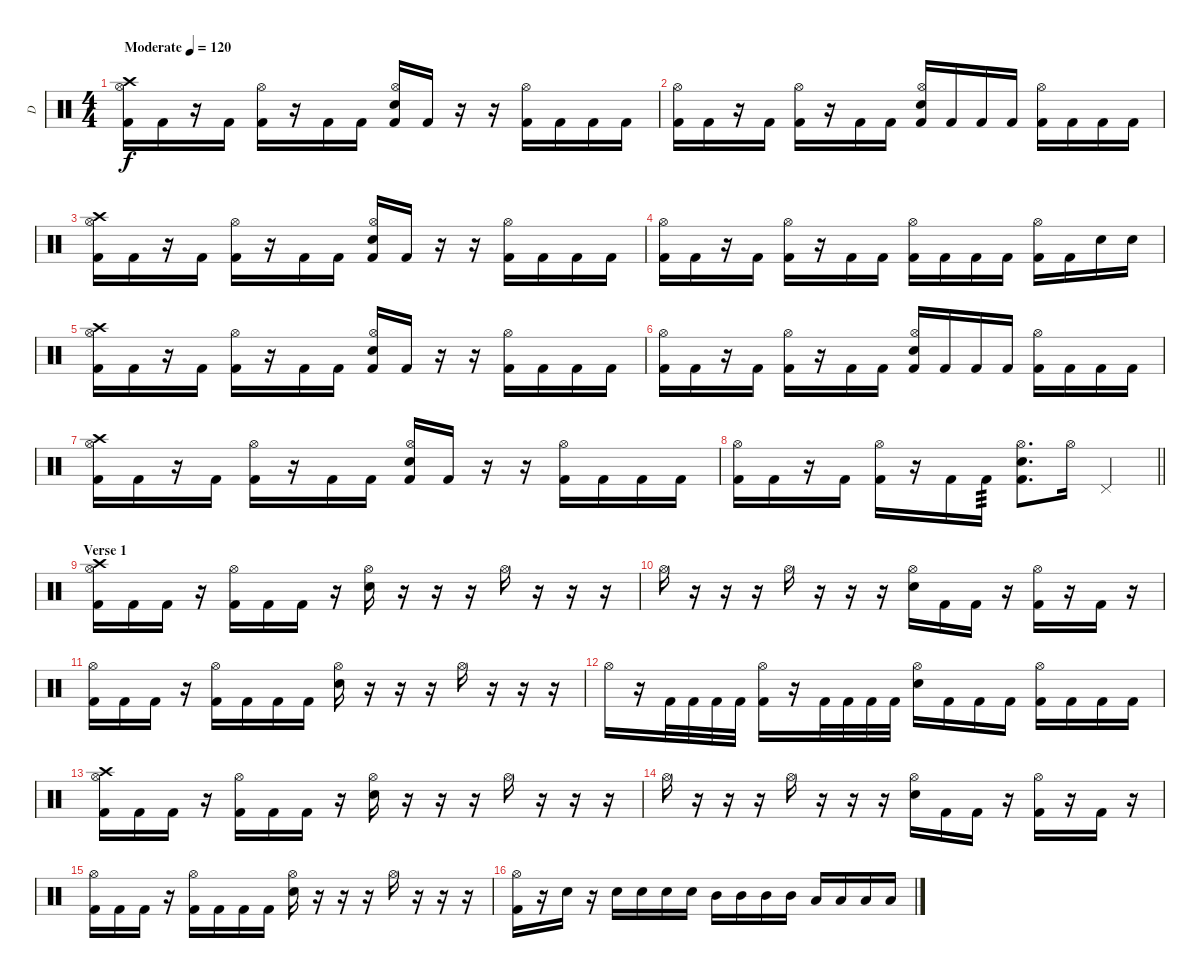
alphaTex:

\track ("D" "D") {instrument percussion}
\staff {score}
\articulation defaults
\ts (4 4)
\section ("" "")
\tempo (120 "Moderate")
\clef neutral
\ks c
("Crash high (hit)" "Kick (hit) 2" "Hi-Hat (open)").16{dy f} "Kick (hit) 2".16 r.16 "Kick (hit) 2".16 ("Kick (hit) 2" "Hi-Hat (open)").16 r.16 "Kick (hit) 2".16 "Kick (hit) 2".16 ("Electric Snare (hit)" "Kick (hit) 2" "Hi-Hat (open)").16 "Kick (hit) 2".16 r.16 r.16 ("Kick (hit) 2" "Hi-Hat (open)").16 "Kick (hit) 2".16 "Kick (hit) 2".16 "Kick (hit) 2".16 |
("Kick (hit) 2" "Hi-Hat (open)").16 "Kick (hit) 2".16 r.16 "Kick (hit) 2".16 ("Kick (hit) 2" "Hi-Hat (open)").16 r.16 "Kick (hit) 2".16 "Kick (hit) 2".16 ("Electric Snare (hit)" "Kick (hit) 2" "Hi-Hat (open)").16 "Kick (hit) 2".16 "Kick (hit) 2".16 "Kick (hit) 2".16 ("Kick (hit) 2" "Hi-Hat (open)").16 "Kick (hit) 2".16 "Kick (hit) 2".16 "Kick (hit) 2".16 |
("Crash high (hit)" "Kick (hit) 2" "Hi-Hat (open)").16 "Kick (hit) 2".16 r.16 "Kick (hit) 2".16 ("Kick (hit) 2" "Hi-Hat (open)").16 r.16 "Kick (hit) 2".16 "Kick (hit) 2".16 ("Electric Snare (hit)" "Kick (hit) 2" "Hi-Hat (open)").16 "Kick (hit) 2".16 r.16 r.16 ("Kick (hit) 2" "Hi-Hat (open)").16 "Kick (hit) 2".16 "Kick (hit) 2".16 "Kick (hit) 2".16 |
("Kick (hit) 2" "Hi-Hat (open)").16 "Kick (hit) 2".16 r.16 "Kick (hit) 2".16 ("Kick (hit) 2" "Hi-Hat (open)").16 r.16 "Kick (hit) 2".16 "Kick (hit) 2".16 ("Kick (hit) 2" "Hi-Hat (open)").16 "Kick (hit) 2".16 "Kick (hit) 2".16 "Kick (hit) 2".16 ("Kick (hit) 2" "Hi-Hat (open)").16 "Kick (hit) 2".16 "Electric Snare (hit)".16 "Electric Snare (hit)".16 |
("Crash high (hit)" "Kick (hit) 2" "Hi-Hat (open)").16 "Kick (hit) 2".16 r.16 "Kick (hit) 2".16 ("Kick (hit) 2" "Hi-Hat (open)").16 r.16 "Kick (hit) 2".16 "Kick (hit) 2".16 ("Electric Snare (hit)" "Kick (hit) 2" "Hi-Hat (open)").16 "Kick (hit) 2".16 r.16 r.16 ("Kick (hit) 2" "Hi-Hat (open)").16 "Kick (hit) 2".16 "Kick (hit) 2".16 "Kick (hit) 2".16 |
("Kick (hit) 2" "Hi-Hat (open)").16 "Kick (hit) 2".16 r.16 "Kick (hit) 2".16 ("Kick (hit) 2" "Hi-Hat (open)").16 r.16 "Kick (hit) 2".16 "Kick (hit) 2".16 ("Electric Snare (hit)" "Kick (hit) 2" "Hi-Hat (open)").16 "Kick (hit) 2".16 "Kick (hit) 2".16 "Kick (hit) 2".16 ("Kick (hit) 2" "Hi-Hat (open)").16 "Kick (hit) 2".16 "Kick (hit) 2".16 "Kick (hit) 2".16 |
("Crash high (hit)" "Kick (hit) 2" "Hi-Hat (open)").16 "Kick (hit) 2".16 r.16 "Kick (hit) 2".16 ("Kick (hit) 2" "Hi-Hat (open)").16 r.16 "Kick (hit) 2".16 "Kick (hit) 2".16 ("Electric Snare (hit)" "Kick (hit) 2" "Hi-Hat (open)").16 "Kick (hit) 2".16 r.16 r.16 ("Kick (hit) 2" "Hi-Hat (open)").16 "Kick (hit) 2".16 "Kick (hit) 2".16 "Kick (hit) 2".16 |
\barLineRight lightlight
("Kick (hit) 2" "Hi-Hat (open)").16 "Kick (hit) 2".16 r.16 "Kick (hit) 2".16 ("Kick (hit) 2" "Hi-Hat (open)").16 r.16 "Kick (hit) 2".16 "Kick (hit) 2".16{tp 3} ("Electric Snare (hit)" "Kick (hit) 2" "Hi-Hat (open)").8{d} "Hi-Hat (open)".16 "Pedal Hi-Hat (hit)".4 |
\section ("" "Verse 1")
("Crash high (hit)" "Kick (hit) 2" "Hi-Hat (open)").16 "Kick (hit) 2".16 "Kick (hit) 2".16 r.16 ("Kick (hit) 2" "Hi-Hat (open)").16 "Kick (hit) 2".16 "Kick (hit) 2".16 r.16 ("Electric Snare (hit)" "Hi-Hat (open)").16 r.16 r.16 r.16 "Hi-Hat (open)".16 r.16 r.16 r.16 |
"Hi-Hat (open)".16 r.16 r.16 r.16 "Hi-Hat (open)".16 r.16 r.16 r.16 ("Electric Snare (hit)" "Hi-Hat (open)").16 "Kick (hit) 2".16 "Kick (hit) 2".16 r.16 ("Kick (hit) 2" "Hi-Hat (open)").16 r.16 "Kick (hit) 2".16 r.16 |
("Kick (hit) 2" "Hi-Hat (open)").16 "Kick (hit) 2".16 "Kick (hit) 2".16 r.16 ("Kick (hit) 2" "Hi-Hat (open)").16 "Kick (hit) 2".16 "Kick (hit) 2".16 "Kick (hit) 2".16 ("Electric Snare (hit)" "Hi-Hat (open)").16 r.16 r.16 r.16 "Hi-Hat (open)".16 r.16 r.16 r.16 |
"Hi-Hat (open)".16 r.16 "Kick (hit) 2".32 "Kick (hit) 2".32 "Kick (hit) 2".32 "Kick (hit) 2".32 ("Kick (hit) 2" "Hi-Hat (open)").16 r.16 "Kick (hit) 2".32 "Kick (hit) 2".32 "Kick (hit) 2".32 "Kick (hit) 2".32 ("Electric Snare (hit)" "Hi-Hat (open)").16 "Kick (hit) 2".16 "Kick (hit) 2".16 "Kick (hit) 2".16 ("Kick (hit) 2" "Hi-Hat (open)").16 "Kick (hit) 2".16 "Kick (hit) 2".16 "Kick (hit) 2".16 |
("Crash high (hit)" "Kick (hit) 2" "Hi-Hat (open)").16 "Kick (hit) 2".16 "Kick (hit) 2".16 r.16 ("Kick (hit) 2" "Hi-Hat (open)").16 "Kick (hit) 2".16 "Kick (hit) 2".16 r.16 ("Electric Snare (hit)" "Hi-Hat (open)").16 r.16 r.16 r.16 "Hi-Hat (open)".16 r.16 r.16 r.16 |
"Hi-Hat (open)".16 r.16 r.16 r.16 "Hi-Hat (open)".16 r.16 r.16 r.16 ("Electric Snare (hit)" "Hi-Hat (open)").16 "Kick (hit) 2".16 "Kick (hit) 2".16 r.16 ("Kick (hit) 2" "Hi-Hat (open)").16 r.16 "Kick (hit) 2".16 r.16 |
("Kick (hit) 2" "Hi-Hat (open)").16 "Kick (hit) 2".16 "Kick (hit) 2".16 r.16 ("Kick (hit) 2" "Hi-Hat (open)").16 "Kick (hit) 2".16 "Kick (hit) 2".16 "Kick (hit) 2".16 ("Electric Snare (hit)" "Hi-Hat (open)").16 r.16 r.16 r.16 "Hi-Hat (open)".16 r.16 r.16 r.16 |
("Kick (hit) 2" "Hi-Hat (open)").16 r.16 "Electric Snare (hit)".16 r.16 "Electric Snare (hit)".16 "Electric Snare (hit)".16 "Electric Snare (hit)".16 "Electric Snare (hit)".16 "Mid Tom (hit)".16 "Mid Tom (hit)".16 "Mid Tom (hit)".16 "Mid Tom (hit)".16 "Low Tom (hit)".16 "Low Tom (hit)".16 "Low Tom (hit)".16 "Low Tom (hit)".16
